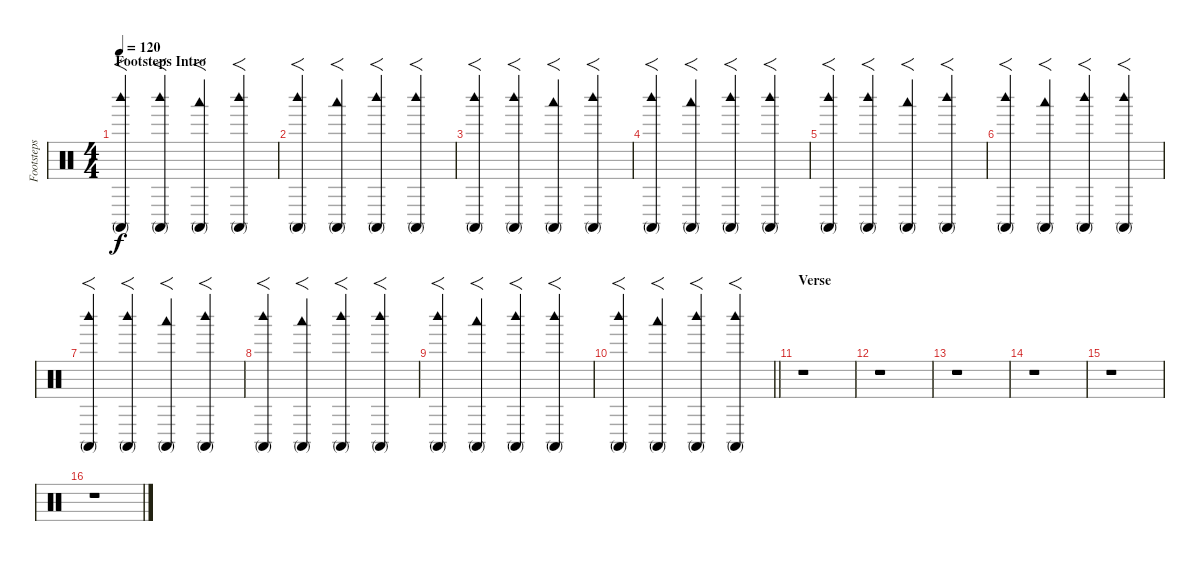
\track ("Footsteps" "Footsteps") {instrument percussion}
\staff {score}
\articulation defaults
\ts (4 4)
\section ("" "Footsteps Intro")
\tempo 120
\clef neutral
\ks c
("Woodblock high (hit)" "Conga high (mute)").4{f dy f} ("Woodblock high (hit)" "Conga high (mute)").4{f} ("Woodblock low (hit)" "Conga high (mute)").4{f} ("Woodblock high (hit)" "Conga high (mute)").4{f} |
("Woodblock high (hit)" "Conga high (mute)").4{f} ("Woodblock low (hit)" "Conga high (mute)").4{f} ("Woodblock high (hit)" "Conga high (mute)").4{f} ("Woodblock high (hit)" "Conga high (mute)").4{f} |
("Woodblock high (hit)" "Conga high (mute)").4{f} ("Woodblock high (hit)" "Conga high (mute)").4{f} ("Woodblock low (hit)" "Conga high (mute)").4{f} ("Woodblock high (hit)" "Conga high (mute)").4{f} |
("Woodblock high (hit)" "Conga high (mute)").4{f} ("Woodblock low (hit)" "Conga high (mute)").4{f} ("Woodblock high (hit)" "Conga high (mute)").4{f} ("Woodblock high (hit)" "Conga high (mute)").4{f} |
("Woodblock high (hit)" "Conga high (mute)").4{f} ("Woodblock high (hit)" "Conga high (mute)").4{f} ("Woodblock low (hit)" "Conga high (mute)").4{f} ("Woodblock high (hit)" "Conga high (mute)").4{f} |
("Woodblock high (hit)" "Conga high (mute)").4{f} ("Woodblock low (hit)" "Conga high (mute)").4{f} ("Woodblock high (hit)" "Conga high (mute)").4{f} ("Woodblock high (hit)" "Conga high (mute)").4{f} |
("Woodblock high (hit)" "Conga high (mute)").4{f} ("Woodblock high (hit)" "Conga high (mute)").4{f} ("Woodblock low (hit)" "Conga high (mute)").4{f} ("Woodblock high (hit)" "Conga high (mute)").4{f} |
("Woodblock high (hit)" "Conga high (mute)").4{f} ("Woodblock low (hit)" "Conga high (mute)").4{f} ("Woodblock high (hit)" "Conga high (mute)").4{f} ("Woodblock high (hit)" "Conga high (mute)").4{f} |
("Woodblock high (hit)" "Conga high (mute)").4{f} ("Woodblock low (hit)" "Conga high (mute)").4{f} ("Woodblock high (hit)" "Conga high (mute)").4{f} ("Woodblock high (hit)" "Conga high (mute)").4{f} |
\barLineRight lightlight
("Woodblock high (hit)" "Conga high (mute)").4{f} ("Woodblock low (hit)" "Conga high (mute)").4{f} ("Woodblock high (hit)" "Conga high (mute)").4{f} ("Woodblock high (hit)" "Conga high (mute)").4{f} |
\section ("" "Verse")
r.1 |
r.1 |
r.1 |
r.1 |
r.1 |
r.1
